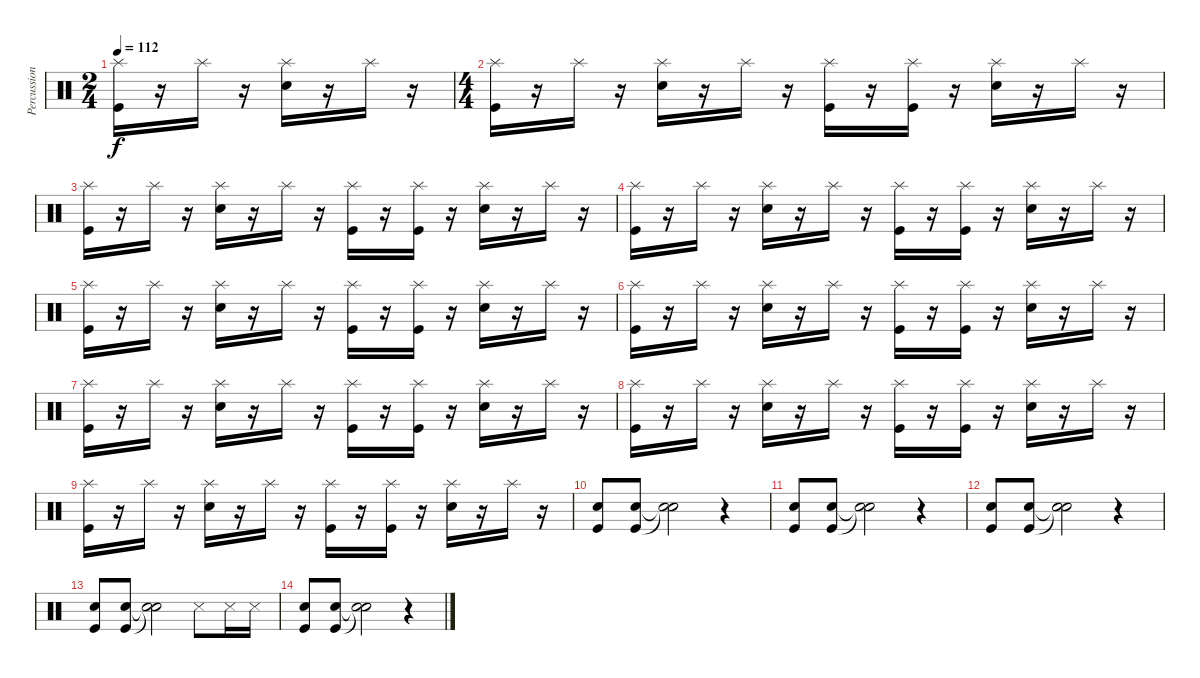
\track ("Percussions" "Percussion") {instrument percussion}
\staff {score}
\articulation defaults
\ts (2 4)
\tempo 112
\clef neutral
\ks c
("Splash (hit)" "Kick (hit)").16{dy f} r.16 "Splash (hit)".16 r.16 ("Splash (hit)" "Electric Snare (hit)").16 r.16 "Splash (hit)".16 r.16 |
\ts (4 4)
("Splash (hit)" "Kick (hit)").16 r.16 "Splash (hit)".16 r.16 ("Splash (hit)" "Electric Snare (hit)").16 r.16 "Splash (hit)".16 r.16 ("Splash (hit)" "Kick (hit)").16 r.16 ("Splash (hit)" "Kick (hit)").16 r.16 ("Splash (hit)" "Electric Snare (hit)").16 r.16 "Splash (hit)".16 r.16 |
("Splash (hit)" "Kick (hit)").16 r.16 "Splash (hit)".16 r.16 ("Splash (hit)" "Electric Snare (hit)").16 r.16 "Splash (hit)".16 r.16 ("Splash (hit)" "Kick (hit)").16 r.16 ("Splash (hit)" "Kick (hit)").16 r.16 ("Splash (hit)" "Electric Snare (hit)").16 r.16 "Splash (hit)".16 r.16 |
("Splash (hit)" "Kick (hit)").16 r.16 "Splash (hit)".16 r.16 ("Splash (hit)" "Electric Snare (hit)").16 r.16 "Splash (hit)".16 r.16 ("Splash (hit)" "Kick (hit)").16 r.16 ("Splash (hit)" "Kick (hit)").16 r.16 ("Splash (hit)" "Electric Snare (hit)").16 r.16 "Splash (hit)".16 r.16 |
("Splash (hit)" "Kick (hit)").16 r.16 "Splash (hit)".16 r.16 ("Splash (hit)" "Electric Snare (hit)").16 r.16 "Splash (hit)".16 r.16 ("Splash (hit)" "Kick (hit)").16 r.16 ("Splash (hit)" "Kick (hit)").16 r.16 ("Splash (hit)" "Electric Snare (hit)").16 r.16 "Splash (hit)".16 r.16 |
("Splash (hit)" "Kick (hit)").16 r.16 "Splash (hit)".16 r.16 ("Splash (hit)" "Electric Snare (hit)").16 r.16 "Splash (hit)".16 r.16 ("Splash (hit)" "Kick (hit)").16 r.16 ("Splash (hit)" "Kick (hit)").16 r.16 ("Splash (hit)" "Electric Snare (hit)").16 r.16 "Splash (hit)".16 r.16 |
("Splash (hit)" "Kick (hit)").16 r.16 "Splash (hit)".16 r.16 ("Splash (hit)" "Electric Snare (hit)").16 r.16 "Splash (hit)".16 r.16 ("Splash (hit)" "Kick (hit)").16 r.16 ("Splash (hit)" "Kick (hit)").16 r.16 ("Splash (hit)" "Electric Snare (hit)").16 r.16 "Splash (hit)".16 r.16 |
("Splash (hit)" "Kick (hit)").16 r.16 "Splash (hit)".16 r.16 ("Splash (hit)" "Electric Snare (hit)").16 r.16 "Splash (hit)".16 r.16 ("Splash (hit)" "Kick (hit)").16 r.16 ("Splash (hit)" "Kick (hit)").16 r.16 ("Splash (hit)" "Electric Snare (hit)").16 r.16 "Splash (hit)".16 r.16 |
("Splash (hit)" "Kick (hit)").16 r.16 "Splash (hit)".16 r.16 ("Splash (hit)" "Electric Snare (hit)").16 r.16 "Splash (hit)".16 r.16 ("Splash (hit)" "Kick (hit)").16 r.16 ("Splash (hit)" "Kick (hit)").16 r.16 ("Splash (hit)" "Electric Snare (hit)").16 r.16 "Splash (hit)".16 r.16 |
("Electric Snare (hit)" "Kick (hit)").8 ("Electric Snare (hit)" "Kick (hit)").8 ("Snare (hit)"{t} "Snare (hit)"{t}).2 r.4 |
("Electric Snare (hit)" "Kick (hit)").8 ("Electric Snare (hit)" "Kick (hit)").8 ("Snare (hit)"{t} "Snare (hit)"{t}).2 r.4 |
("Electric Snare (hit)" "Kick (hit)").8 ("Electric Snare (hit)" "Kick (hit)").8 ("Snare (hit)"{t} "Snare (hit)"{t}).2 r.4 |
("Electric Snare (hit)" "Kick (hit)").8 ("Electric Snare (hit)" "Kick (hit)").8 ("Snare (hit)"{t} "Snare (hit)"{t}).2 "Metronome (hit)".8 "Metronome (hit)".16 "Metronome (hit)".16 |
("Electric Snare (hit)" "Kick (hit)").8 ("Electric Snare (hit)" "Kick (hit)").8 ("Snare (hit)"{t} "Snare (hit)"{t}).2 r.4
